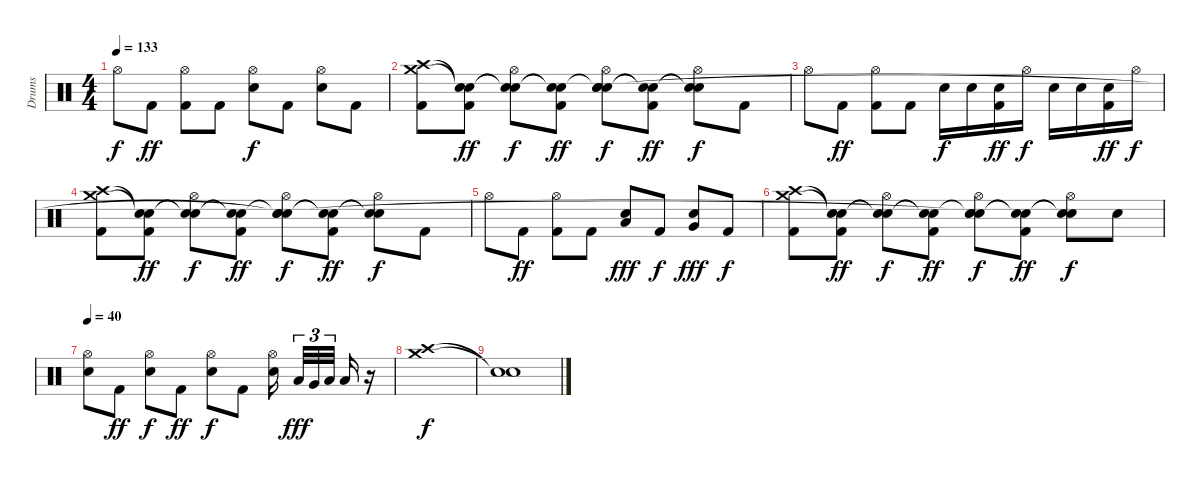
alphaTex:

\track ("Drums" "Drums") {instrument percussion}
\staff {score}
\articulation defaults
\ts (4 4)
\tempo 133
\clef neutral
\ks c "Hi-Hat (open)".8{dy f} "Kick (hit) 2".8{dy ff}
("Hi-Hat (open)" "Kick (hit) 2").8 "Kick (hit) 2".8 ("Hi-Hat (open)" "Snare (hit) 2").8{dy f} "Kick (hit) 2".8 ("Hi-Hat (open)" "Snare (hit) 2").8 "Kick (hit) 2".8 |
("Kick (hit) 2" "Crash high (hit)" "Crash medium (hit)").8 ("Kick (hit) 2" "Snare (hit)"{t} "Snare (hit)"{t}).8{dy ff} ("Hi-Hat (open)" "Snare (hit)"{t} "Snare (hit)"{t}).8{dy f} ("Kick (hit) 2" "Snare (hit)"{t} "Snare (hit)"{t}).8{dy ff} ("Hi-Hat (open)" "Snare (hit) 2" "Snare (hit)"{t} "Snare (hit)"{t}).8{dy f} ("Kick (hit) 2" "Snare (hit)"{t} "Snare (hit)"{t}).8{dy ff} ("Hi-Hat (open)" "Snare (hit)"{t} "Snare (hit)"{t}).8{dy f} "Kick (hit) 2".8 |
"Hi-Hat (open)".8 "Kick (hit) 2".8{dy ff} ("Hi-Hat (open)" "Kick (hit) 2").8 "Kick (hit) 2".8 "Snare (hit) 2".16{dy f} "Snare (hit) 2".16 ("Snare (hit) 2" "Kick (hit) 2").16{dy ff} "Hi-Hat (open)".16{dy f} "Snare (hit) 2".16 "Snare (hit) 2".16 ("Snare (hit) 2" "Kick (hit) 2").16{dy ff} "Hi-Hat (open)".16{dy f} |
("Kick (hit) 2" "Crash high (hit)" "Crash medium (hit)").8 ("Kick (hit) 2" "Snare (hit)"{t} "Snare (hit)"{t}).8{dy ff} ("Hi-Hat (open)" "Snare (hit)"{t} "Snare (hit)"{t}).8{dy f} ("Kick (hit) 2" "Snare (hit)"{t} "Snare (hit)"{t}).8{dy ff} ("Hi-Hat (open)" "Snare (hit) 2" "Snare (hit)"{t} "Snare (hit)"{t}).8{dy f} ("Kick (hit) 2" "Snare (hit)"{t} "Snare (hit)"{t}).8{dy ff} ("Hi-Hat (open)" "Snare (hit)"{t} "Snare (hit)"{t}).8{dy f} "Kick (hit) 2".8 |
"Hi-Hat (open)".8 "Kick (hit) 2".8{dy ff} ("Hi-Hat (open)" "Kick (hit) 2").8 "Kick (hit) 2".8 ("Low Floor Tom (hit)" "Snare (hit) 2").8{dy fff} "Kick (hit) 2".8{dy f} ("Very Low Tom (hit)" "Snare (hit) 2").8{dy fff} "Kick (hit) 2".8{dy f} |
("Kick (hit) 2" "Crash high (hit)" "Crash medium (hit)").8 ("Kick (hit) 2" "Snare (hit)"{t} "Snare (hit)"{t}).8{dy ff} ("Hi-Hat (open)" "Snare (hit)"{t} "Snare (hit)"{t}).8{dy f} ("Kick (hit) 2" "Snare (hit)"{t} "Snare (hit)"{t}).8{dy ff} ("Hi-Hat (open)" "Snare (hit) 2" "Snare (hit)"{t} "Snare (hit)"{t}).8{dy f} ("Kick (hit) 2" "Snare (hit)"{t} "Snare (hit)"{t}).8{dy ff} ("Hi-Hat (open)" "Snare (hit)"{t} "Snare (hit)"{t}).8{dy f} "Snare (hit) 2".8 |
\tempo 40
("Hi-Hat (open)" "Snare (hit) 2").8 "Kick (hit) 2".8{dy ff} ("Hi-Hat (open)" "Snare (hit) 2").8{dy f} "Kick (hit) 2".8{dy ff} ("Hi-Hat (open)" "Snare (hit) 2").8{dy f} "Kick (hit) 2".8 ("Hi-Hat (open)" "Snare (hit) 2").16{beam splitsecondary} "Low Tom (hit)".32{tu (3 2) dy fff} "Very Low Tom (hit)".32{tu (3 2)} "Low Floor Tom (hit)".32{tu (3 2) beam splitsecondary} "Low Floor Tom (hit)".16 r.16 |
("Crash medium (hit)" "Crash high (hit)").1{dy f} |
("Snare (hit)"{t} "Snare (hit)"{t}).1
